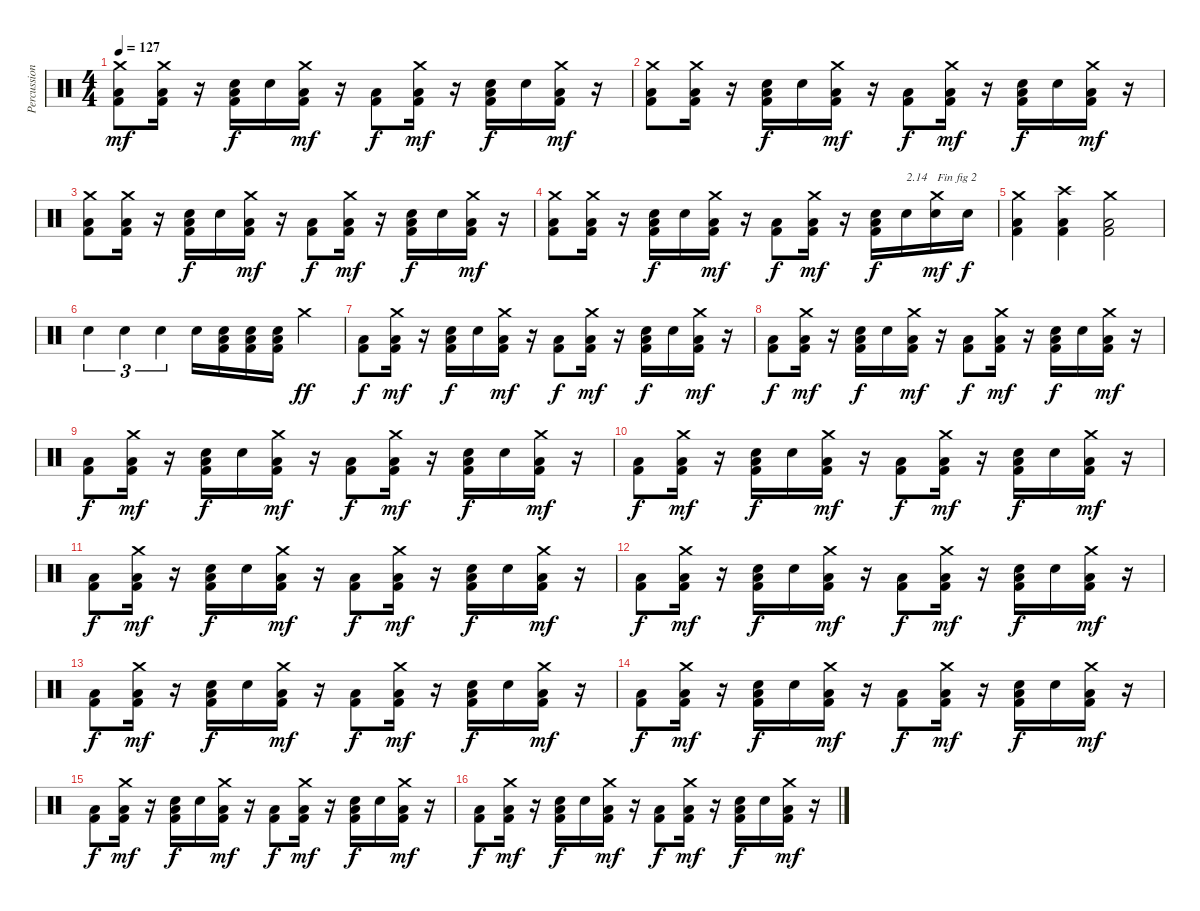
\track ("Percussions" "Percussion") {instrument percussion}
\staff {score}
\articulation defaults
\ts (4 4)
\tempo 127
\clef neutral
\ks c
("Low Floor Tom (hit)" "Kick (hit) 2" "Crash medium (hit)").8{dy mf} ("Low Floor Tom (hit)" "Kick (hit) 2" "Crash medium (hit)").16 r.16 ("Low Floor Tom (hit)" "Kick (hit) 2" "Electric Snare (hit)").16{dy f} "Electric Snare (hit)".16 ("Low Floor Tom (hit)" "Kick (hit) 2" "Crash medium (hit)").16{dy mf} r.16 ("Low Floor Tom (hit)" "Kick (hit) 2").8{dy f} ("Low Floor Tom (hit)" "Kick (hit) 2" "Crash medium (hit)").16{dy mf} r.16 ("Low Floor Tom (hit)" "Kick (hit) 2" "Electric Snare (hit)").16{dy f} "Electric Snare (hit)".16 ("Low Floor Tom (hit)" "Kick (hit) 2" "Crash medium (hit)").16{dy mf} r.16 |
("Low Floor Tom (hit)" "Kick (hit) 2" "Crash medium (hit)").8 ("Low Floor Tom (hit)" "Kick (hit) 2" "Crash medium (hit)").16 r.16 ("Low Floor Tom (hit)" "Kick (hit) 2" "Electric Snare (hit)").16{dy f} "Electric Snare (hit)".16 ("Low Floor Tom (hit)" "Kick (hit) 2" "Crash medium (hit)").16{dy mf} r.16 ("Low Floor Tom (hit)" "Kick (hit) 2").8{dy f} ("Low Floor Tom (hit)" "Kick (hit) 2" "Crash medium (hit)").16{dy mf} r.16 ("Low Floor Tom (hit)" "Kick (hit) 2" "Electric Snare (hit)").16{dy f} "Electric Snare (hit)".16 ("Low Floor Tom (hit)" "Kick (hit) 2" "Crash medium (hit)").16{dy mf} r.16 |
("Low Floor Tom (hit)" "Kick (hit) 2" "Crash medium (hit)").8 ("Low Floor Tom (hit)" "Kick (hit) 2" "Crash medium (hit)").16 r.16 ("Low Floor Tom (hit)" "Kick (hit) 2" "Electric Snare (hit)").16{dy f} "Electric Snare (hit)".16 ("Low Floor Tom (hit)" "Kick (hit) 2" "Crash medium (hit)").16{dy mf} r.16 ("Low Floor Tom (hit)" "Kick (hit) 2").8{dy f} ("Low Floor Tom (hit)" "Kick (hit) 2" "Crash medium (hit)").16{dy mf} r.16 ("Low Floor Tom (hit)" "Kick (hit) 2" "Electric Snare (hit)").16{dy f} "Electric Snare (hit)".16 ("Low Floor Tom (hit)" "Kick (hit) 2" "Crash medium (hit)").16{dy mf} r.16 |
("Low Floor Tom (hit)" "Kick (hit) 2" "Crash medium (hit)").8 ("Low Floor Tom (hit)" "Kick (hit) 2" "Crash medium (hit)").16 r.16 ("Low Floor Tom (hit)" "Kick (hit) 2" "Electric Snare (hit)").16{dy f} "Electric Snare (hit)".16 ("Low Floor Tom (hit)" "Kick (hit) 2" "Crash medium (hit)").16{dy mf} r.16 ("Low Floor Tom (hit)" "Kick (hit) 2").8{dy f} ("Low Floor Tom (hit)" "Kick (hit) 2" "Crash medium (hit)").16{dy mf} r.16 ("Low Floor Tom (hit)" "Kick (hit) 2" "Electric Snare (hit)").16{dy f} "Electric Snare (hit)".16{txt "2.14"} ("Electric Snare (hit)" "Crash medium (hit)").16{txt "Fin fig 2" dy mf} "Electric Snare (hit)".16{dy f} |
("Low Floor Tom (hit)" "Kick (hit) 2" "Crash medium (hit)").4 ("Low Floor Tom (hit)" "Kick (hit) 2" "Crash high (hit)").4 ("Low Floor Tom (hit)" "Kick (hit) 2" "Crash medium (hit)").2 |
"Electric Snare (hit)".4{tu (3 2)} "Electric Snare (hit)".4{tu (3 2)} "Electric Snare (hit)".4{tu (3 2)} "Electric Snare (hit)".16 ("Kick (hit) 2" "Low Floor Tom (hit)" "Electric Snare (hit)").16 ("Kick (hit) 2" "Low Floor Tom (hit)" "Electric Snare (hit)").16 ("Kick (hit) 2" "Low Floor Tom (hit)" "Electric Snare (hit)").16 "Crash medium (hit)".4{dy ff} |
("Low Floor Tom (hit)" "Kick (hit) 2").8{dy f} ("Low Floor Tom (hit)" "Kick (hit) 2" "Crash medium (hit)").16{dy mf} r.16 ("Low Floor Tom (hit)" "Kick (hit) 2" "Electric Snare (hit)").16{dy f} "Electric Snare (hit)".16 ("Low Floor Tom (hit)" "Kick (hit) 2" "Crash medium (hit)").16{dy mf} r.16 ("Low Floor Tom (hit)" "Kick (hit) 2").8{dy f} ("Low Floor Tom (hit)" "Kick (hit) 2" "Crash medium (hit)").16{dy mf} r.16 ("Low Floor Tom (hit)" "Kick (hit) 2" "Electric Snare (hit)").16{dy f} "Electric Snare (hit)".16 ("Low Floor Tom (hit)" "Kick (hit) 2" "Crash medium (hit)").16{dy mf} r.16 |
("Low Floor Tom (hit)" "Kick (hit) 2").8{dy f} ("Low Floor Tom (hit)" "Kick (hit) 2" "Crash medium (hit)").16{dy mf} r.16 ("Low Floor Tom (hit)" "Kick (hit) 2" "Electric Snare (hit)").16{dy f} "Electric Snare (hit)".16 ("Low Floor Tom (hit)" "Kick (hit) 2" "Crash medium (hit)").16{dy mf} r.16 ("Low Floor Tom (hit)" "Kick (hit) 2").8{dy f} ("Low Floor Tom (hit)" "Kick (hit) 2" "Crash medium (hit)").16{dy mf} r.16 ("Low Floor Tom (hit)" "Kick (hit) 2" "Electric Snare (hit)").16{dy f} "Electric Snare (hit)".16 ("Low Floor Tom (hit)" "Kick (hit) 2" "Crash medium (hit)").16{dy mf} r.16 |
("Low Floor Tom (hit)" "Kick (hit) 2").8{dy f} ("Low Floor Tom (hit)" "Kick (hit) 2" "Crash medium (hit)").16{dy mf} r.16 ("Low Floor Tom (hit)" "Kick (hit) 2" "Electric Snare (hit)").16{dy f} "Electric Snare (hit)".16 ("Low Floor Tom (hit)" "Kick (hit) 2" "Crash medium (hit)").16{dy mf} r.16 ("Low Floor Tom (hit)" "Kick (hit) 2").8{dy f} ("Low Floor Tom (hit)" "Kick (hit) 2" "Crash medium (hit)").16{dy mf} r.16 ("Low Floor Tom (hit)" "Kick (hit) 2" "Electric Snare (hit)").16{dy f} "Electric Snare (hit)".16 ("Low Floor Tom (hit)" "Kick (hit) 2" "Crash medium (hit)").16{dy mf} r.16 |
("Low Floor Tom (hit)" "Kick (hit) 2").8{dy f} ("Low Floor Tom (hit)" "Kick (hit) 2" "Crash medium (hit)").16{dy mf} r.16 ("Low Floor Tom (hit)" "Kick (hit) 2" "Electric Snare (hit)").16{dy f} "Electric Snare (hit)".16 ("Low Floor Tom (hit)" "Kick (hit) 2" "Crash medium (hit)").16{dy mf} r.16 ("Low Floor Tom (hit)" "Kick (hit) 2").8{dy f} ("Low Floor Tom (hit)" "Kick (hit) 2" "Crash medium (hit)").16{dy mf} r.16 ("Low Floor Tom (hit)" "Kick (hit) 2" "Electric Snare (hit)").16{dy f} "Electric Snare (hit)".16 ("Low Floor Tom (hit)" "Kick (hit) 2" "Crash medium (hit)").16{dy mf} r.16 |
("Low Floor Tom (hit)" "Kick (hit) 2").8{dy f} ("Low Floor Tom (hit)" "Kick (hit) 2" "Crash medium (hit)").16{dy mf} r.16 ("Low Floor Tom (hit)" "Kick (hit) 2" "Electric Snare (hit)").16{dy f} "Electric Snare (hit)".16 ("Low Floor Tom (hit)" "Kick (hit) 2" "Crash medium (hit)").16{dy mf} r.16 ("Low Floor Tom (hit)" "Kick (hit) 2").8{dy f} ("Low Floor Tom (hit)" "Kick (hit) 2" "Crash medium (hit)").16{dy mf} r.16 ("Low Floor Tom (hit)" "Kick (hit) 2" "Electric Snare (hit)").16{dy f} "Electric Snare (hit)".16 ("Low Floor Tom (hit)" "Kick (hit) 2" "Crash medium (hit)").16{dy mf} r.16 |
("Low Floor Tom (hit)" "Kick (hit) 2").8{dy f} ("Low Floor Tom (hit)" "Kick (hit) 2" "Crash medium (hit)").16{dy mf} r.16 ("Low Floor Tom (hit)" "Kick (hit) 2" "Electric Snare (hit)").16{dy f} "Electric Snare (hit)".16 ("Low Floor Tom (hit)" "Kick (hit) 2" "Crash medium (hit)").16{dy mf} r.16 ("Low Floor Tom (hit)" "Kick (hit) 2").8{dy f} ("Low Floor Tom (hit)" "Kick (hit) 2" "Crash medium (hit)").16{dy mf} r.16 ("Low Floor Tom (hit)" "Kick (hit) 2" "Electric Snare (hit)").16{dy f} "Electric Snare (hit)".16 ("Low Floor Tom (hit)" "Kick (hit) 2" "Crash medium (hit)").16{dy mf} r.16 |
("Low Floor Tom (hit)" "Kick (hit) 2").8{dy f} ("Low Floor Tom (hit)" "Kick (hit) 2" "Crash medium (hit)").16{dy mf} r.16 ("Low Floor Tom (hit)" "Kick (hit) 2" "Electric Snare (hit)").16{dy f} "Electric Snare (hit)".16 ("Low Floor Tom (hit)" "Kick (hit) 2" "Crash medium (hit)").16{dy mf} r.16 ("Low Floor Tom (hit)" "Kick (hit) 2").8{dy f} ("Low Floor Tom (hit)" "Kick (hit) 2" "Crash medium (hit)").16{dy mf} r.16 ("Low Floor Tom (hit)" "Kick (hit) 2" "Electric Snare (hit)").16{dy f} "Electric Snare (hit)".16 ("Low Floor Tom (hit)" "Kick (hit) 2" "Crash medium (hit)").16{dy mf} r.16 |
("Low Floor Tom (hit)" "Kick (hit) 2").8{dy f} ("Low Floor Tom (hit)" "Kick (hit) 2" "Crash medium (hit)").16{dy mf} r.16 ("Low Floor Tom (hit)" "Kick (hit) 2" "Electric Snare (hit)").16{dy f} "Electric Snare (hit)".16 ("Low Floor Tom (hit)" "Kick (hit) 2" "Crash medium (hit)").16{dy mf} r.16 ("Low Floor Tom (hit)" "Kick (hit) 2").8{dy f} ("Low Floor Tom (hit)" "Kick (hit) 2" "Crash medium (hit)").16{dy mf} r.16 ("Low Floor Tom (hit)" "Kick (hit) 2" "Electric Snare (hit)").16{dy f} "Electric Snare (hit)".16 ("Low Floor Tom (hit)" "Kick (hit) 2" "Crash medium (hit)").16{dy mf} r.16 |
("Low Floor Tom (hit)" "Kick (hit) 2").8{dy f} ("Low Floor Tom (hit)" "Kick (hit) 2" "Crash medium (hit)").16{dy mf} r.16 ("Low Floor Tom (hit)" "Kick (hit) 2" "Electric Snare (hit)").16{dy f} "Electric Snare (hit)".16 ("Low Floor Tom (hit)" "Kick (hit) 2" "Crash medium (hit)").16{dy mf} r.16 ("Low Floor Tom (hit)" "Kick (hit) 2").8{dy f} ("Low Floor Tom (hit)" "Kick (hit) 2" "Crash medium (hit)").16{dy mf} r.16 ("Low Floor Tom (hit)" "Kick (hit) 2" "Electric Snare (hit)").16{dy f} "Electric Snare (hit)".16 ("Low Floor Tom (hit)" "Kick (hit) 2" "Crash medium (hit)").16{dy mf} r.16 |
("Low Floor Tom (hit)" "Kick (hit) 2").8{dy f} ("Low Floor Tom (hit)" "Kick (hit) 2" "Crash medium (hit)").16{dy mf} r.16 ("Low Floor Tom (hit)" "Kick (hit) 2" "Electric Snare (hit)").16{dy f} "Electric Snare (hit)".16 ("Low Floor Tom (hit)" "Kick (hit) 2" "Crash medium (hit)").16{dy mf} r.16 ("Low Floor Tom (hit)" "Kick (hit) 2").8{dy f} ("Low Floor Tom (hit)" "Kick (hit) 2" "Crash medium (hit)").16{dy mf} r.16 ("Low Floor Tom (hit)" "Kick (hit) 2" "Electric Snare (hit)").16{dy f} "Electric Snare (hit)".16 ("Low Floor Tom (hit)" "Kick (hit) 2" "Crash medium (hit)").16{dy mf} r.16
